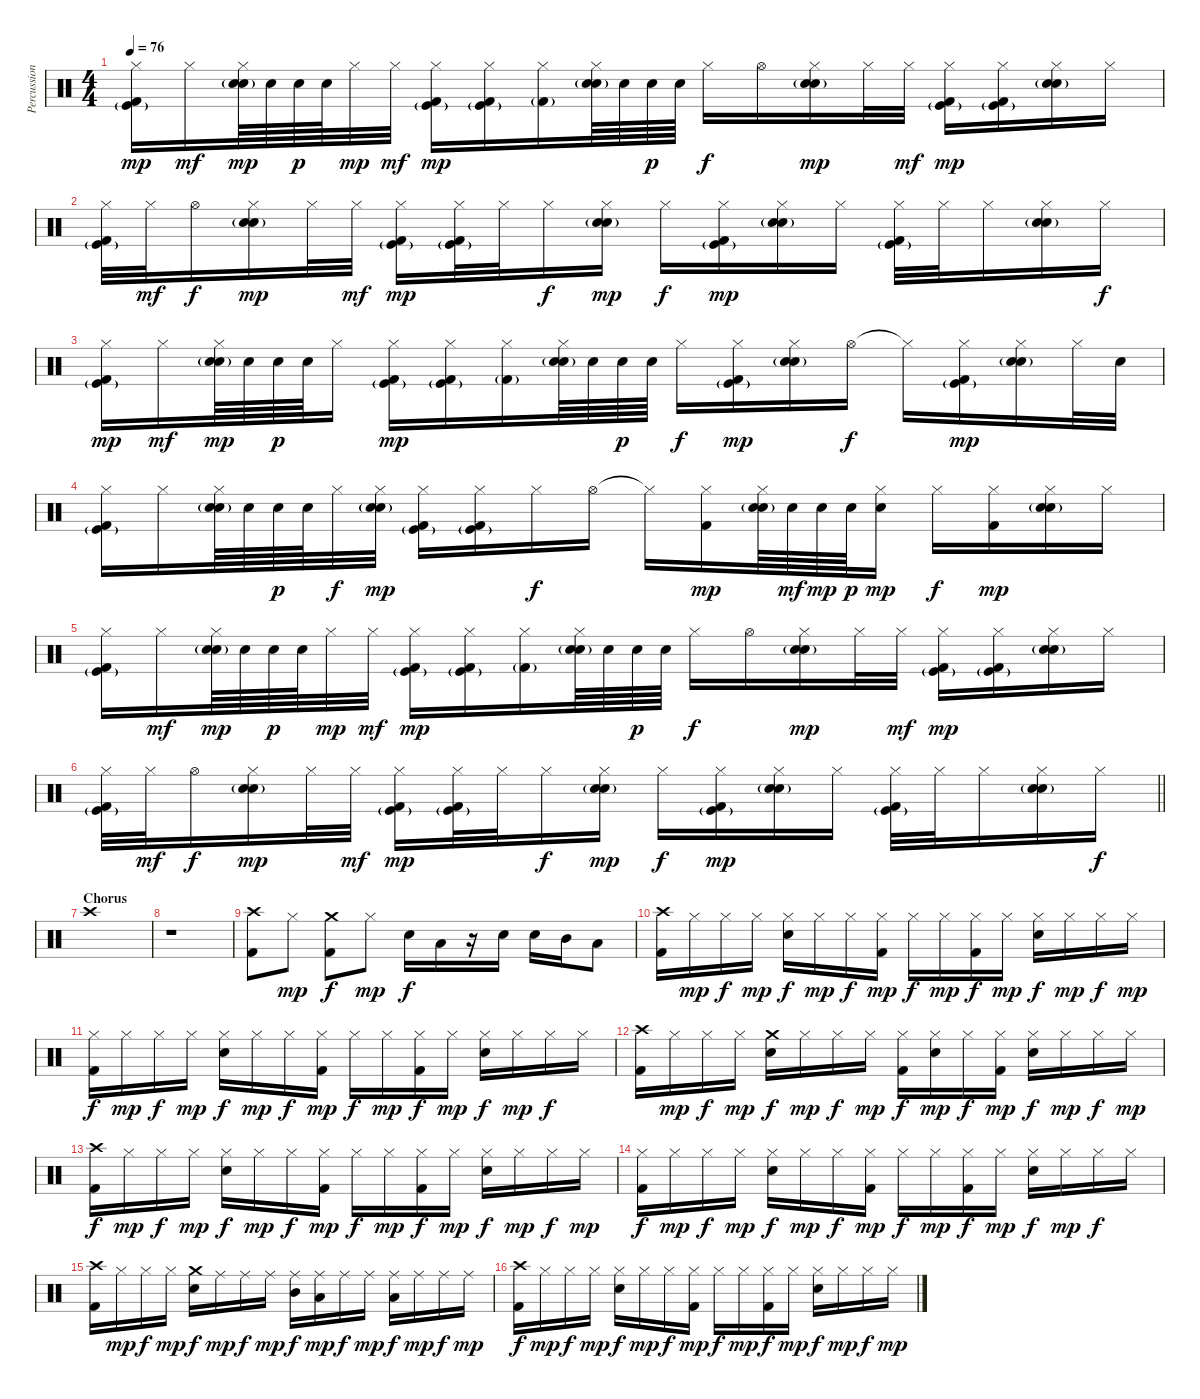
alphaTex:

\track ("Percussion" "Percussion") {instrument percussion}
\staff {score}
\articulation defaults
\ts (4 4)
\tempo 76
\clef neutral
\ks c
("Kick (hit) 2" "Kick (hit)"{g} "Hi-Hat (closed)").16{dy mp} "Hi-Hat (closed)".16{dy mf} ("Electric Snare (hit)"{g} "Snare (hit) 2" "Hi-Hat (closed)").64{dy mp} "Snare (hit) 2".64 "Snare (hit) 2".64{dy p} "Snare (hit) 2".64 "Hi-Hat (closed)".32{dy mp} "Hi-Hat (closed)".32{dy mf} ("Kick (hit) 2" "Kick (hit)"{g} "Hi-Hat (closed)").16{dy mp} ("Kick (hit) 2" "Kick (hit)"{g} "Hi-Hat (closed)").16 ("Kick (hit) 2"{g} "Hi-Hat (closed)").16 ("Electric Snare (hit)"{g} "Snare (hit) 2" "Hi-Hat (closed)").64 "Snare (hit) 2".64 "Snare (hit) 2".64{dy p} "Snare (hit) 2".64 "Hi-Hat (closed)".16{dy f} "Hi-Hat (open)".16 ("Electric Snare (hit)"{g} "Snare (hit) 2" "Hi-Hat (closed)").16{dy mp} "Hi-Hat (closed)".32 "Hi-Hat (closed)".32{dy mf} ("Kick (hit) 2" "Kick (hit)"{g} "Hi-Hat (closed)").16{dy mp} ("Kick (hit) 2" "Kick (hit)"{g} "Hi-Hat (closed)").16 ("Electric Snare (hit)"{g} "Snare (hit) 2" "Hi-Hat (closed)").16 "Hi-Hat (closed)".16 |
("Kick (hit) 2" "Kick (hit)"{g} "Hi-Hat (closed)").32 "Hi-Hat (closed)".32{dy mf} "Hi-Hat (open)".16{dy f} ("Electric Snare (hit)"{g} "Snare (hit) 2" "Hi-Hat (closed)").16{dy mp} "Hi-Hat (closed)".32 "Hi-Hat (closed)".32{dy mf} ("Kick (hit) 2" "Kick (hit)"{g} "Hi-Hat (closed)").16{dy mp} ("Kick (hit) 2" "Kick (hit)"{g} "Hi-Hat (closed)").32 "Hi-Hat (closed)".32 "Hi-Hat (closed)".16{dy f} ("Electric Snare (hit)"{g} "Snare (hit) 2" "Hi-Hat (closed)").16{dy mp} "Hi-Hat (closed)".16{dy f} ("Kick (hit) 2" "Kick (hit)"{g} "Hi-Hat (closed)").16{dy mp} ("Electric Snare (hit)"{g} "Snare (hit) 2" "Hi-Hat (closed)").16 "Hi-Hat (closed)".16 ("Kick (hit) 2" "Kick (hit)"{g} "Hi-Hat (closed)").32 "Hi-Hat (closed)".32 "Hi-Hat (closed)".16 ("Electric Snare (hit)"{g} "Snare (hit) 2" "Hi-Hat (closed)").16 "Hi-Hat (closed)".16{dy f} |
("Kick (hit) 2" "Kick (hit)"{g} "Hi-Hat (closed)").16{dy mp} "Hi-Hat (closed)".16{dy mf} ("Electric Snare (hit)"{g} "Snare (hit) 2" "Hi-Hat (closed)").64{dy mp} "Snare (hit) 2".64 "Snare (hit) 2".64{dy p} "Snare (hit) 2".64 "Hi-Hat (closed)".16 ("Kick (hit) 2" "Kick (hit)"{g} "Hi-Hat (closed)").16{dy mp} ("Kick (hit) 2" "Kick (hit)"{g} "Hi-Hat (closed)").16 ("Kick (hit) 2"{g} "Hi-Hat (closed)").16 ("Electric Snare (hit)"{g} "Snare (hit) 2" "Hi-Hat (closed)").64 "Snare (hit) 2".64 "Snare (hit) 2".64{dy p} "Snare (hit) 2".64 "Hi-Hat (closed)".16{dy f} ("Kick (hit) 2" "Kick (hit)"{g} "Hi-Hat (closed)").16{dy mp} ("Electric Snare (hit)"{g} "Snare (hit) 2" "Hi-Hat (closed)").16 "Hi-Hat (open)".16{dy f} "Hi-Hat (closed)"{t}.16 ("Kick (hit) 2" "Kick (hit)"{g} "Hi-Hat (closed)").16{dy mp} ("Electric Snare (hit)"{g} "Snare (hit) 2" "Hi-Hat (closed)").16 "Hi-Hat (closed)".32 "Snare (hit) 2".32 |
("Kick (hit) 2" "Kick (hit)"{g} "Hi-Hat (closed)").16 "Hi-Hat (closed)".16 ("Electric Snare (hit)"{g} "Snare (hit) 2" "Hi-Hat (closed)").64 "Snare (hit) 2".64 "Snare (hit) 2".64{dy p} "Snare (hit) 2".64 "Hi-Hat (closed)".32{dy f} ("Electric Snare (hit)"{g} "Snare (hit) 2" "Hi-Hat (closed)").32{dy mp} ("Kick (hit) 2" "Kick (hit)"{g} "Hi-Hat (closed)").16 ("Kick (hit) 2" "Kick (hit)"{g} "Hi-Hat (closed)").16 "Hi-Hat (closed)".16{dy f} "Hi-Hat (open)".16 "Hi-Hat (closed)"{t}.16 ("Kick (hit) 2" "Hi-Hat (closed)").16{dy mp} ("Electric Snare (hit)"{g} "Snare (hit) 2" "Hi-Hat (closed)").64 "Snare (hit) 2".64{dy mf} "Snare (hit) 2".64{dy mp} "Snare (hit) 2".64{dy p} ("Snare (hit) 2" "Hi-Hat (closed)").16{dy mp} "Hi-Hat (closed)".16{dy f} ("Kick (hit) 2" "Hi-Hat (closed)").16{dy mp} ("Electric Snare (hit)"{g} "Snare (hit) 2" "Hi-Hat (closed)").16 "Hi-Hat (closed)".16 |
("Kick (hit) 2" "Kick (hit)"{g} "Hi-Hat (closed)").16 "Hi-Hat (closed)".16{dy mf} ("Electric Snare (hit)"{g} "Snare (hit) 2" "Hi-Hat (closed)").64{dy mp} "Snare (hit) 2".64 "Snare (hit) 2".64{dy p} "Snare (hit) 2".64 "Hi-Hat (closed)".32{dy mp} "Hi-Hat (closed)".32{dy mf} ("Kick (hit) 2" "Kick (hit)"{g} "Hi-Hat (closed)").16{dy mp} ("Kick (hit) 2" "Kick (hit)"{g} "Hi-Hat (closed)").16 ("Kick (hit) 2"{g} "Hi-Hat (closed)").16 ("Electric Snare (hit)"{g} "Snare (hit) 2" "Hi-Hat (closed)").64 "Snare (hit) 2".64 "Snare (hit) 2".64{dy p} "Snare (hit) 2".64 "Hi-Hat (closed)".16{dy f} "Hi-Hat (open)".16 ("Electric Snare (hit)"{g} "Snare (hit) 2" "Hi-Hat (closed)").16{dy mp} "Hi-Hat (closed)".32 "Hi-Hat (closed)".32{dy mf} ("Kick (hit) 2" "Kick (hit)"{g} "Hi-Hat (closed)").16{dy mp} ("Kick (hit) 2" "Kick (hit)"{g} "Hi-Hat (closed)").16 ("Electric Snare (hit)"{g} "Snare (hit) 2" "Hi-Hat (closed)").16 "Hi-Hat (closed)".16 |
\barLineRight lightlight
("Kick (hit) 2" "Kick (hit)"{g} "Hi-Hat (closed)").32 "Hi-Hat (closed)".32{dy mf} "Hi-Hat (open)".16{dy f} ("Electric Snare (hit)"{g} "Snare (hit) 2" "Hi-Hat (closed)").16{dy mp} "Hi-Hat (closed)".32 "Hi-Hat (closed)".32{dy mf} ("Kick (hit) 2" "Kick (hit)"{g} "Hi-Hat (closed)").16{dy mp} ("Kick (hit) 2" "Kick (hit)"{g} "Hi-Hat (closed)").32 "Hi-Hat (closed)".32 "Hi-Hat (closed)".16{dy f} ("Electric Snare (hit)"{g} "Snare (hit) 2" "Hi-Hat (closed)").16{dy mp} "Hi-Hat (closed)".16{dy f} ("Kick (hit) 2" "Kick (hit)"{g} "Hi-Hat (closed)").16{dy mp} ("Electric Snare (hit)"{g} "Snare (hit) 2" "Hi-Hat (closed)").16 "Hi-Hat (closed)".16 ("Kick (hit) 2" "Kick (hit)"{g} "Hi-Hat (closed)").32 "Hi-Hat (closed)".32 "Hi-Hat (closed)".16 ("Electric Snare (hit)"{g} "Snare (hit) 2" "Hi-Hat (closed)").16 "Hi-Hat (closed)".16{dy f} |
\section ("" "Chorus")
"Crash high (hit)".1{volume 13} |
r.1 |
("Kick (hit) 2" "Crash high (hit)").8 "Hi-Hat (closed)".8{dy mp} ("Kick (hit) 2" "Crash medium (hit)").8{dy f} "Hi-Hat (closed)".8{dy mp} "Snare (hit) 2".16{dy f} "Low Tom (hit)".16 r.16 "Snare (hit) 2".16 "Snare (hit) 2".16 "Mid Tom (hit)".16 "Low Tom (hit)".8 |
("Kick (hit) 2" "Crash high (hit)").16 "Hi-Hat (closed)".16{dy mp} "Hi-Hat (closed)".16{dy f} "Hi-Hat (closed)".16{dy mp} ("Snare (hit) 2" "Hi-Hat (closed)").16{dy f} "Hi-Hat (closed)".16{dy mp} "Hi-Hat (closed)".16{dy f} ("Kick (hit) 2" "Hi-Hat (closed)").16{dy mp} "Hi-Hat (closed)".16{dy f} "Hi-Hat (closed)".16{dy mp} ("Kick (hit) 2" "Hi-Hat (closed)").16{dy f} "Hi-Hat (closed)".16{dy mp} ("Snare (hit) 2" "Hi-Hat (closed)").16{dy f} "Hi-Hat (closed)".16{dy mp} "Hi-Hat (closed)".16{dy f} "Hi-Hat (closed)".16{dy mp} |
("Kick (hit) 2" "Hi-Hat (closed)").16{dy f} "Hi-Hat (closed)".16{dy mp} "Hi-Hat (closed)".16{dy f} "Hi-Hat (closed)".16{dy mp} ("Snare (hit) 2" "Hi-Hat (closed)").16{dy f} "Hi-Hat (closed)".16{dy mp} "Hi-Hat (closed)".16{dy f} ("Kick (hit) 2" "Hi-Hat (closed)").16{dy mp} "Hi-Hat (closed)".16{dy f} "Hi-Hat (closed)".16{dy mp} ("Kick (hit) 2" "Hi-Hat (closed)").16{dy f} "Hi-Hat (closed)".16{dy mp} ("Snare (hit) 2" "Hi-Hat (closed)").16{dy f} "Hi-Hat (closed)".16{dy mp} "Hi-Hat (closed)".16{dy f} "Hi-Hat (closed)".16 |
("Kick (hit) 2" "Crash high (hit)").16 "Hi-Hat (closed)".16{dy mp} "Hi-Hat (closed)".16{dy f} "Hi-Hat (closed)".16{dy mp} ("Crash medium (hit)" "Snare (hit) 2").16{dy f} "Hi-Hat (closed)".16{dy mp} "Hi-Hat (closed)".16{dy f} "Hi-Hat (closed)".16{dy mp} ("Kick (hit) 2" "Hi-Hat (closed)").16{dy f} ("Snare (hit) 2" "Hi-Hat (closed)").16{dy mp} "Hi-Hat (closed)".16{dy f} ("Kick (hit) 2" "Hi-Hat (closed)").16{dy mp} ("Snare (hit) 2" "Hi-Hat (closed)").16{dy f} "Hi-Hat (closed)".16{dy mp} "Hi-Hat (closed)".16{dy f} "Hi-Hat (closed)".16{dy mp} |
("Kick (hit) 2" "Crash high (hit)").16{dy f} "Hi-Hat (closed)".16{dy mp} "Hi-Hat (closed)".16{dy f} "Hi-Hat (closed)".16{dy mp} ("Snare (hit) 2" "Hi-Hat (closed)").16{dy f} "Hi-Hat (closed)".16{dy mp} "Hi-Hat (closed)".16{dy f} ("Kick (hit) 2" "Hi-Hat (closed)").16{dy mp} "Hi-Hat (closed)".16{dy f} "Hi-Hat (closed)".16{dy mp} ("Kick (hit) 2" "Hi-Hat (closed)").16{dy f} "Hi-Hat (closed)".16{dy mp} ("Snare (hit) 2" "Hi-Hat (closed)").16{dy f} "Hi-Hat (closed)".16{dy mp} "Hi-Hat (closed)".16{dy f} "Hi-Hat (closed)".16{dy mp} |
("Kick (hit) 2" "Hi-Hat (closed)").16{dy f} "Hi-Hat (closed)".16{dy mp} "Hi-Hat (closed)".16{dy f} "Hi-Hat (closed)".16{dy mp} ("Snare (hit) 2" "Hi-Hat (closed)").16{dy f} "Hi-Hat (closed)".16{dy mp} "Hi-Hat (closed)".16{dy f} ("Kick (hit) 2" "Hi-Hat (closed)").16{dy mp} "Hi-Hat (closed)".16{dy f} "Hi-Hat (closed)".16{dy mp} ("Kick (hit) 2" "Hi-Hat (closed)").16{dy f} "Hi-Hat (closed)".16{dy mp} ("Snare (hit) 2" "Hi-Hat (closed)").16{dy f} "Hi-Hat (closed)".16{dy mp} "Hi-Hat (closed)".16{dy f} "Hi-Hat (closed)".16 |
("Kick (hit) 2" "Crash high (hit)").16 "Hi-Hat (closed)".16{dy mp} "Hi-Hat (closed)".16{dy f} "Hi-Hat (closed)".16{dy mp} ("Crash medium (hit)" "Snare (hit) 2").16{dy f} "Ride (middle)".16{dy mp} "Ride (middle)".16{dy f} "Ride (middle)".16{dy mp} ("Ride (middle)" "Mid Tom (hit)").16{dy f} ("Ride (middle)" "Low Tom (hit)").16{dy mp} "Ride (middle)".16{dy f} "Ride (middle)".16{dy mp} ("Ride (middle)" "Low Floor Tom (hit)").16{dy f} "Ride (middle)".16{dy mp} "Ride (middle)".16{dy f} "Ride (middle)".16{dy mp} |
("Kick (hit) 2" "Crash high (hit)").16{dy f} "Hi-Hat (closed)".16{dy mp} "Hi-Hat (closed)".16{dy f} "Hi-Hat (closed)".16{dy mp} ("Snare (hit) 2" "Hi-Hat (closed)").16{dy f} "Hi-Hat (closed)".16{dy mp} "Hi-Hat (closed)".16{dy f} ("Kick (hit) 2" "Hi-Hat (closed)").16{dy mp} "Hi-Hat (closed)".16{dy f} "Hi-Hat (closed)".16{dy mp} ("Kick (hit) 2" "Hi-Hat (closed)").16{dy f} "Hi-Hat (closed)".16{dy mp} ("Snare (hit) 2" "Hi-Hat (closed)").16{dy f} "Hi-Hat (closed)".16{dy mp} "Hi-Hat (closed)".16{dy f} "Hi-Hat (closed)".16{dy mp}
